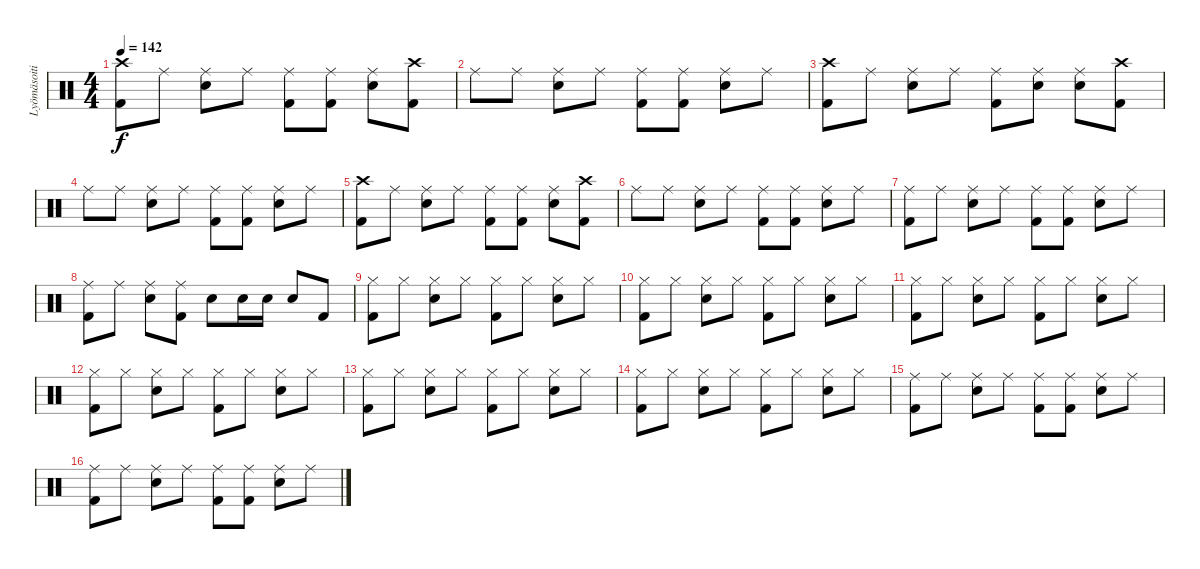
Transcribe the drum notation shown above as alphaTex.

\track ("Lyömäsoitin" "Lyömäsoiti") {instrument percussion}
\staff {score}
\articulation defaults
\ts (4 4)
\tempo 142
\clef neutral
\ks c
("Crash high (hit)" "Kick (hit) 2").8{dy f} "Ride (middle)".8 ("Ride (middle)" "Electric Snare (hit)").8 "Ride (middle)".8 ("Ride (middle)" "Kick (hit) 2").8 ("Ride (middle)" "Kick (hit) 2").8 ("Ride (middle)" "Electric Snare (hit)").8 ("Crash high (hit)" "Kick (hit) 2").8 |
"Ride (middle)".8 "Ride (middle)".8 ("Ride (middle)" "Electric Snare (hit)").8 "Ride (middle)".8 ("Ride (middle)" "Kick (hit) 2").8 ("Ride (middle)" "Kick (hit) 2").8 ("Ride (middle)" "Electric Snare (hit)").8 "Ride (middle)".8 |
("Crash high (hit)" "Kick (hit) 2").8 "Ride (middle)".8 ("Ride (middle)" "Electric Snare (hit)").8 "Ride (middle)".8 ("Ride (middle)" "Kick (hit) 2").8 ("Ride (middle)" "Electric Snare (hit)").8 ("Ride (middle)" "Electric Snare (hit)").8 ("Crash high (hit)" "Kick (hit) 2").8 |
"Ride (middle)".8 "Ride (middle)".8 ("Ride (middle)" "Electric Snare (hit)").8 "Ride (middle)".8 ("Ride (middle)" "Kick (hit) 2").8 ("Ride (middle)" "Kick (hit) 2").8 ("Ride (middle)" "Electric Snare (hit)").8 "Ride (middle)".8 |
("Crash high (hit)" "Kick (hit) 2").8 "Ride (middle)".8 ("Ride (middle)" "Electric Snare (hit)").8 "Ride (middle)".8 ("Ride (middle)" "Kick (hit) 2").8 ("Ride (middle)" "Kick (hit) 2").8 ("Ride (middle)" "Electric Snare (hit)").8 ("Crash high (hit)" "Kick (hit) 2").8 |
"Ride (middle)".8 "Ride (middle)".8 ("Ride (middle)" "Electric Snare (hit)").8 "Ride (middle)".8 ("Ride (middle)" "Kick (hit) 2").8 ("Ride (middle)" "Kick (hit) 2").8 ("Ride (middle)" "Electric Snare (hit)").8 "Ride (middle)".8 |
("Ride (middle)" "Kick (hit) 2").8 "Ride (middle)".8 ("Ride (middle)" "Electric Snare (hit)").8 "Ride (middle)".8 ("Ride (middle)" "Kick (hit) 2").8 ("Ride (middle)" "Kick (hit) 2").8 ("Ride (middle)" "Electric Snare (hit)").8 "Ride (middle)".8 |
("Ride (middle)" "Kick (hit) 2").8 "Ride (middle)".8 ("Ride (middle)" "Electric Snare (hit)").8 ("Ride (middle)" "Kick (hit) 2").8 "Electric Snare (hit)".8 "Electric Snare (hit)".16 "Electric Snare (hit)".16 "Electric Snare (hit)".8 "Kick (hit) 2".8 |
("Hi-Hat (closed)" "Kick (hit) 2").8 "Hi-Hat (closed)".8 ("Hi-Hat (closed)" "Electric Snare (hit)").8 "Hi-Hat (closed)".8 ("Hi-Hat (closed)" "Kick (hit) 2").8 "Hi-Hat (closed)".8 ("Hi-Hat (closed)" "Electric Snare (hit)").8 "Hi-Hat (closed)".8 |
("Hi-Hat (closed)" "Kick (hit) 2").8 "Hi-Hat (closed)".8 ("Hi-Hat (closed)" "Electric Snare (hit)").8 "Hi-Hat (closed)".8 ("Hi-Hat (closed)" "Kick (hit) 2").8 "Hi-Hat (closed)".8 ("Hi-Hat (closed)" "Electric Snare (hit)").8 "Hi-Hat (closed)".8 |
("Hi-Hat (closed)" "Kick (hit) 2").8 "Hi-Hat (closed)".8 ("Hi-Hat (closed)" "Electric Snare (hit)").8 "Hi-Hat (closed)".8 ("Hi-Hat (closed)" "Kick (hit) 2").8 "Hi-Hat (closed)".8 ("Hi-Hat (closed)" "Electric Snare (hit)").8 "Hi-Hat (closed)".8 |
("Hi-Hat (closed)" "Kick (hit) 2").8 "Hi-Hat (closed)".8 ("Hi-Hat (closed)" "Electric Snare (hit)").8 "Hi-Hat (closed)".8 ("Hi-Hat (closed)" "Kick (hit) 2").8 "Hi-Hat (closed)".8 ("Hi-Hat (closed)" "Electric Snare (hit)").8 "Hi-Hat (closed)".8 |
("Hi-Hat (closed)" "Kick (hit) 2").8 "Hi-Hat (closed)".8 ("Hi-Hat (closed)" "Electric Snare (hit)").8 "Hi-Hat (closed)".8 ("Hi-Hat (closed)" "Kick (hit) 2").8 "Hi-Hat (closed)".8 ("Hi-Hat (closed)" "Electric Snare (hit)").8 "Hi-Hat (closed)".8 |
("Hi-Hat (closed)" "Kick (hit) 2").8 "Hi-Hat (closed)".8 ("Hi-Hat (closed)" "Electric Snare (hit)").8 "Hi-Hat (closed)".8 ("Hi-Hat (closed)" "Kick (hit) 2").8 "Hi-Hat (closed)".8 ("Hi-Hat (closed)" "Electric Snare (hit)").8 "Hi-Hat (closed)".8 |
("Ride (middle)" "Kick (hit) 2").8 "Ride (middle)".8 ("Ride (middle)" "Electric Snare (hit)").8 "Ride (middle)".8 ("Ride (middle)" "Kick (hit) 2").8 ("Ride (middle)" "Kick (hit) 2").8 ("Ride (middle)" "Electric Snare (hit)").8 "Ride (middle)".8 |
("Ride (middle)" "Kick (hit) 2").8 "Ride (middle)".8 ("Ride (middle)" "Electric Snare (hit)").8 "Ride (middle)".8 ("Ride (middle)" "Kick (hit) 2").8 ("Ride (middle)" "Kick (hit) 2").8 ("Ride (middle)" "Electric Snare (hit)").8 "Ride (middle)".8
